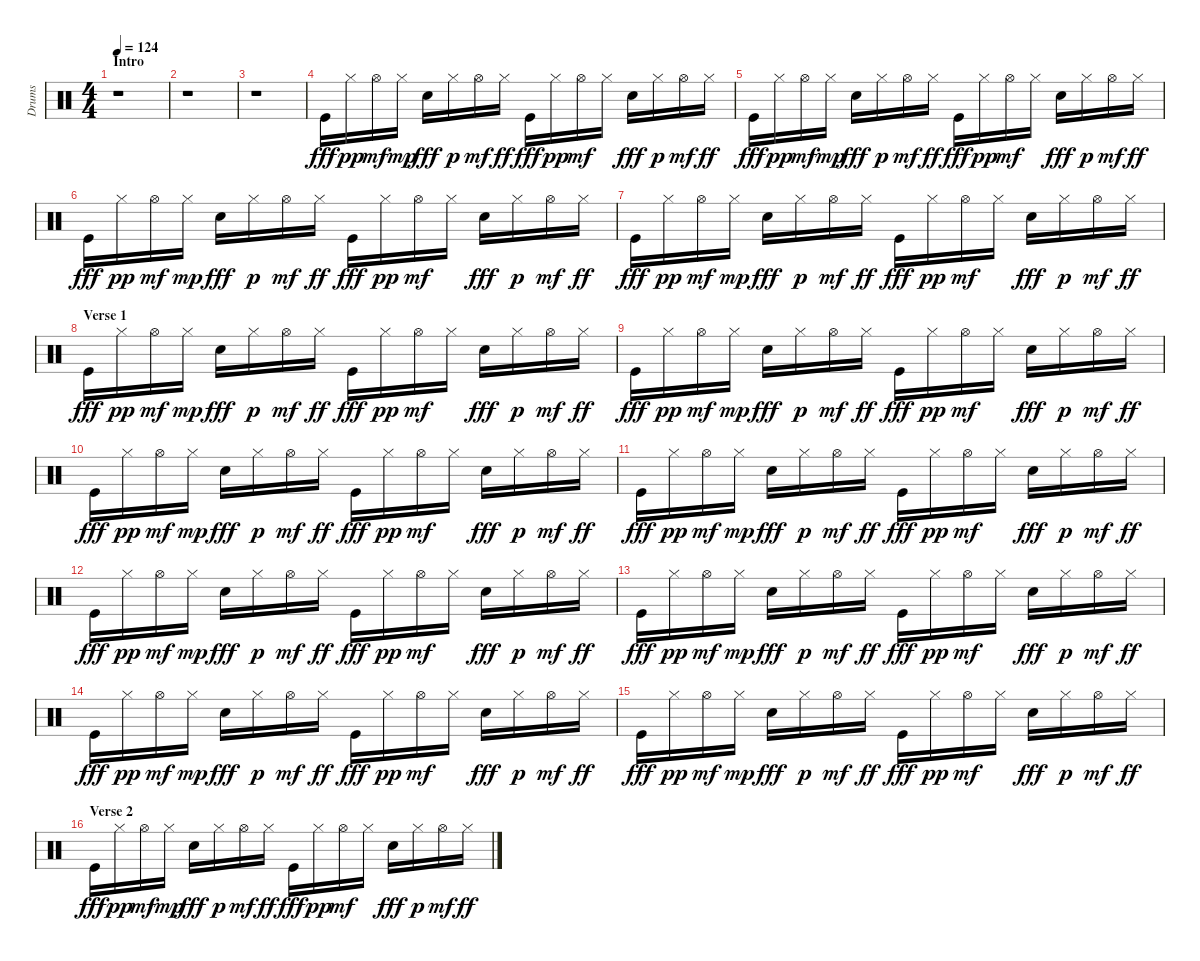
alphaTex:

\track ("Drums" "Drums") {instrument percussion}
\staff {score}
\articulation defaults
\ts (4 4)
\section ("" "Intro")
\tempo 124
\clef neutral
\ks c
r.1{dy fff} |
r.1 |
r.1 |
"Kick (hit)".16 "Hi-Hat (closed)".16{dy pp} "Hi-Hat (open)".16{dy mf} "Hi-Hat (closed)".16{dy mp} "Electric Snare (hit)".16{dy fff} "Hi-Hat (closed)".16{dy p} "Hi-Hat (open)".16{dy mf} "Hi-Hat (closed)".16{dy ff} "Kick (hit)".16{dy fff} "Hi-Hat (closed)".16{dy pp} "Hi-Hat (open)".16{dy mf} "Hi-Hat (closed)".16 "Electric Snare (hit)".16{dy fff} "Hi-Hat (closed)".16{dy p} "Hi-Hat (open)".16{dy mf} "Hi-Hat (closed)".16{dy ff} |
"Kick (hit)".16{dy fff} "Hi-Hat (closed)".16{dy pp} "Hi-Hat (open)".16{dy mf} "Hi-Hat (closed)".16{dy mp} "Electric Snare (hit)".16{dy fff} "Hi-Hat (closed)".16{dy p} "Hi-Hat (open)".16{dy mf} "Hi-Hat (closed)".16{dy ff} "Kick (hit)".16{dy fff} "Hi-Hat (closed)".16{dy pp} "Hi-Hat (open)".16{dy mf} "Hi-Hat (closed)".16 "Electric Snare (hit)".16{dy fff} "Hi-Hat (closed)".16{dy p} "Hi-Hat (open)".16{dy mf} "Hi-Hat (closed)".16{dy ff} |
"Kick (hit)".16{dy fff} "Hi-Hat (closed)".16{dy pp} "Hi-Hat (open)".16{dy mf} "Hi-Hat (closed)".16{dy mp} "Electric Snare (hit)".16{dy fff} "Hi-Hat (closed)".16{dy p} "Hi-Hat (open)".16{dy mf} "Hi-Hat (closed)".16{dy ff} "Kick (hit)".16{dy fff} "Hi-Hat (closed)".16{dy pp} "Hi-Hat (open)".16{dy mf} "Hi-Hat (closed)".16 "Electric Snare (hit)".16{dy fff} "Hi-Hat (closed)".16{dy p} "Hi-Hat (open)".16{dy mf} "Hi-Hat (closed)".16{dy ff} |
"Kick (hit)".16{dy fff} "Hi-Hat (closed)".16{dy pp} "Hi-Hat (open)".16{dy mf} "Hi-Hat (closed)".16{dy mp} "Electric Snare (hit)".16{dy fff} "Hi-Hat (closed)".16{dy p} "Hi-Hat (open)".16{dy mf} "Hi-Hat (closed)".16{dy ff} "Kick (hit)".16{dy fff} "Hi-Hat (closed)".16{dy pp} "Hi-Hat (open)".16{dy mf} "Hi-Hat (closed)".16 "Electric Snare (hit)".16{dy fff} "Hi-Hat (closed)".16{dy p} "Hi-Hat (open)".16{dy mf} "Hi-Hat (closed)".16{dy ff} |
\section ("" "Verse 1")
"Kick (hit)".16{dy fff} "Hi-Hat (closed)".16{dy pp} "Hi-Hat (open)".16{dy mf} "Hi-Hat (closed)".16{dy mp} "Electric Snare (hit)".16{dy fff} "Hi-Hat (closed)".16{dy p} "Hi-Hat (open)".16{dy mf} "Hi-Hat (closed)".16{dy ff} "Kick (hit)".16{dy fff} "Hi-Hat (closed)".16{dy pp} "Hi-Hat (open)".16{dy mf} "Hi-Hat (closed)".16 "Electric Snare (hit)".16{dy fff} "Hi-Hat (closed)".16{dy p} "Hi-Hat (open)".16{dy mf} "Hi-Hat (closed)".16{dy ff} |
"Kick (hit)".16{dy fff} "Hi-Hat (closed)".16{dy pp} "Hi-Hat (open)".16{dy mf} "Hi-Hat (closed)".16{dy mp} "Electric Snare (hit)".16{dy fff} "Hi-Hat (closed)".16{dy p} "Hi-Hat (open)".16{dy mf} "Hi-Hat (closed)".16{dy ff} "Kick (hit)".16{dy fff} "Hi-Hat (closed)".16{dy pp} "Hi-Hat (open)".16{dy mf} "Hi-Hat (closed)".16 "Electric Snare (hit)".16{dy fff} "Hi-Hat (closed)".16{dy p} "Hi-Hat (open)".16{dy mf} "Hi-Hat (closed)".16{dy ff} |
"Kick (hit)".16{dy fff} "Hi-Hat (closed)".16{dy pp} "Hi-Hat (open)".16{dy mf} "Hi-Hat (closed)".16{dy mp} "Electric Snare (hit)".16{dy fff} "Hi-Hat (closed)".16{dy p} "Hi-Hat (open)".16{dy mf} "Hi-Hat (closed)".16{dy ff} "Kick (hit)".16{dy fff} "Hi-Hat (closed)".16{dy pp} "Hi-Hat (open)".16{dy mf} "Hi-Hat (closed)".16 "Electric Snare (hit)".16{dy fff} "Hi-Hat (closed)".16{dy p} "Hi-Hat (open)".16{dy mf} "Hi-Hat (closed)".16{dy ff} |
"Kick (hit)".16{dy fff} "Hi-Hat (closed)".16{dy pp} "Hi-Hat (open)".16{dy mf} "Hi-Hat (closed)".16{dy mp} "Electric Snare (hit)".16{dy fff} "Hi-Hat (closed)".16{dy p} "Hi-Hat (open)".16{dy mf} "Hi-Hat (closed)".16{dy ff} "Kick (hit)".16{dy fff} "Hi-Hat (closed)".16{dy pp} "Hi-Hat (open)".16{dy mf} "Hi-Hat (closed)".16 "Electric Snare (hit)".16{dy fff} "Hi-Hat (closed)".16{dy p} "Hi-Hat (open)".16{dy mf} "Hi-Hat (closed)".16{dy ff} |
"Kick (hit)".16{dy fff} "Hi-Hat (closed)".16{dy pp} "Hi-Hat (open)".16{dy mf} "Hi-Hat (closed)".16{dy mp} "Electric Snare (hit)".16{dy fff} "Hi-Hat (closed)".16{dy p} "Hi-Hat (open)".16{dy mf} "Hi-Hat (closed)".16{dy ff} "Kick (hit)".16{dy fff} "Hi-Hat (closed)".16{dy pp} "Hi-Hat (open)".16{dy mf} "Hi-Hat (closed)".16 "Electric Snare (hit)".16{dy fff} "Hi-Hat (closed)".16{dy p} "Hi-Hat (open)".16{dy mf} "Hi-Hat (closed)".16{dy ff} |
"Kick (hit)".16{dy fff} "Hi-Hat (closed)".16{dy pp} "Hi-Hat (open)".16{dy mf} "Hi-Hat (closed)".16{dy mp} "Electric Snare (hit)".16{dy fff} "Hi-Hat (closed)".16{dy p} "Hi-Hat (open)".16{dy mf} "Hi-Hat (closed)".16{dy ff} "Kick (hit)".16{dy fff} "Hi-Hat (closed)".16{dy pp} "Hi-Hat (open)".16{dy mf} "Hi-Hat (closed)".16 "Electric Snare (hit)".16{dy fff} "Hi-Hat (closed)".16{dy p} "Hi-Hat (open)".16{dy mf} "Hi-Hat (closed)".16{dy ff} |
"Kick (hit)".16{dy fff} "Hi-Hat (closed)".16{dy pp} "Hi-Hat (open)".16{dy mf} "Hi-Hat (closed)".16{dy mp} "Electric Snare (hit)".16{dy fff} "Hi-Hat (closed)".16{dy p} "Hi-Hat (open)".16{dy mf} "Hi-Hat (closed)".16{dy ff} "Kick (hit)".16{dy fff} "Hi-Hat (closed)".16{dy pp} "Hi-Hat (open)".16{dy mf} "Hi-Hat (closed)".16 "Electric Snare (hit)".16{dy fff} "Hi-Hat (closed)".16{dy p} "Hi-Hat (open)".16{dy mf} "Hi-Hat (closed)".16{dy ff} |
"Kick (hit)".16{dy fff} "Hi-Hat (closed)".16{dy pp} "Hi-Hat (open)".16{dy mf} "Hi-Hat (closed)".16{dy mp} "Electric Snare (hit)".16{dy fff} "Hi-Hat (closed)".16{dy p} "Hi-Hat (open)".16{dy mf} "Hi-Hat (closed)".16{dy ff} "Kick (hit)".16{dy fff} "Hi-Hat (closed)".16{dy pp} "Hi-Hat (open)".16{dy mf} "Hi-Hat (closed)".16 "Electric Snare (hit)".16{dy fff} "Hi-Hat (closed)".16{dy p} "Hi-Hat (open)".16{dy mf} "Hi-Hat (closed)".16{dy ff} |
\section ("" "Verse 2")
"Kick (hit)".16{dy fff} "Hi-Hat (closed)".16{dy pp} "Hi-Hat (open)".16{dy mf} "Hi-Hat (closed)".16{dy mp} "Electric Snare (hit)".16{dy fff} "Hi-Hat (closed)".16{dy p} "Hi-Hat (open)".16{dy mf} "Hi-Hat (closed)".16{dy ff} "Kick (hit)".16{dy fff} "Hi-Hat (closed)".16{dy pp} "Hi-Hat (open)".16{dy mf} "Hi-Hat (closed)".16 "Electric Snare (hit)".16{dy fff} "Hi-Hat (closed)".16{dy p} "Hi-Hat (open)".16{dy mf} "Hi-Hat (closed)".16{dy ff}
